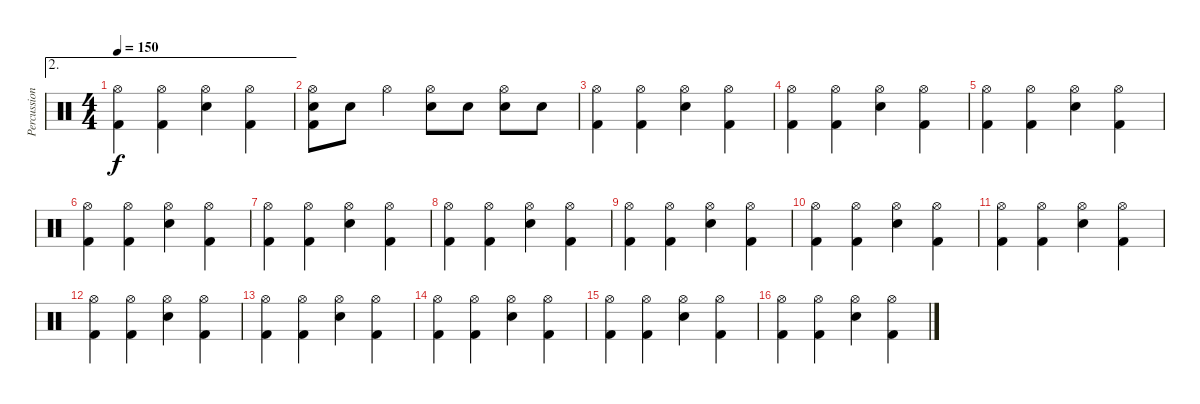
\track ("Percussions" "Percussion") {instrument percussion}
\staff {score}
\articulation defaults
\ae 2
\ts (4 4)
\tempo 150
\clef neutral
\ks c
("Hi-Hat (open)" "Kick (hit) 2").4{dy f} ("Hi-Hat (open)" "Kick (hit) 2").4 ("Hi-Hat (open)" "Electric Snare (hit)").4 ("Hi-Hat (open)" "Kick (hit) 2").4 |
("Hi-Hat (open)" "Snare (hit) 2" "Kick (hit) 2").8 "Snare (hit) 2".8 "Hi-Hat (open)".4 ("Hi-Hat (open)" "Snare (hit) 2").8 "Snare (hit) 2".8 ("Hi-Hat (open)" "Snare (hit) 2").8 "Snare (hit) 2".8 |
("Hi-Hat (open)" "Kick (hit) 2").4 ("Hi-Hat (open)" "Kick (hit) 2").4 ("Hi-Hat (open)" "Electric Snare (hit)").4 ("Hi-Hat (open)" "Kick (hit) 2").4 |
("Hi-Hat (open)" "Kick (hit) 2").4 ("Hi-Hat (open)" "Kick (hit) 2").4 ("Hi-Hat (open)" "Electric Snare (hit)").4 ("Hi-Hat (open)" "Kick (hit) 2").4 |
("Hi-Hat (open)" "Kick (hit) 2").4 ("Hi-Hat (open)" "Kick (hit) 2").4 ("Hi-Hat (open)" "Electric Snare (hit)").4 ("Hi-Hat (open)" "Kick (hit) 2").4 |
("Hi-Hat (open)" "Kick (hit) 2").4 ("Hi-Hat (open)" "Kick (hit) 2").4 ("Hi-Hat (open)" "Electric Snare (hit)").4 ("Hi-Hat (open)" "Kick (hit) 2").4 |
("Hi-Hat (open)" "Kick (hit) 2").4 ("Hi-Hat (open)" "Kick (hit) 2").4 ("Hi-Hat (open)" "Electric Snare (hit)").4 ("Hi-Hat (open)" "Kick (hit) 2").4 |
("Hi-Hat (open)" "Kick (hit) 2").4 ("Hi-Hat (open)" "Kick (hit) 2").4 ("Hi-Hat (open)" "Electric Snare (hit)").4 ("Hi-Hat (open)" "Kick (hit) 2").4 |
("Hi-Hat (open)" "Kick (hit) 2").4 ("Hi-Hat (open)" "Kick (hit) 2").4 ("Hi-Hat (open)" "Electric Snare (hit)").4 ("Hi-Hat (open)" "Kick (hit) 2").4 |
("Hi-Hat (open)" "Kick (hit) 2").4 ("Hi-Hat (open)" "Kick (hit) 2").4 ("Hi-Hat (open)" "Electric Snare (hit)").4 ("Hi-Hat (open)" "Kick (hit) 2").4 |
("Hi-Hat (open)" "Kick (hit) 2").4 ("Hi-Hat (open)" "Kick (hit) 2").4 ("Hi-Hat (open)" "Electric Snare (hit)").4 ("Hi-Hat (open)" "Kick (hit) 2").4 |
("Hi-Hat (open)" "Kick (hit) 2").4 ("Hi-Hat (open)" "Kick (hit) 2").4 ("Hi-Hat (open)" "Electric Snare (hit)").4 ("Hi-Hat (open)" "Kick (hit) 2").4 |
("Hi-Hat (open)" "Kick (hit) 2").4 ("Hi-Hat (open)" "Kick (hit) 2").4 ("Hi-Hat (open)" "Electric Snare (hit)").4 ("Hi-Hat (open)" "Kick (hit) 2").4 |
("Hi-Hat (open)" "Kick (hit) 2").4 ("Hi-Hat (open)" "Kick (hit) 2").4 ("Hi-Hat (open)" "Electric Snare (hit)").4 ("Hi-Hat (open)" "Kick (hit) 2").4 |
("Hi-Hat (open)" "Kick (hit) 2").4 ("Hi-Hat (open)" "Kick (hit) 2").4 ("Hi-Hat (open)" "Electric Snare (hit)").4 ("Hi-Hat (open)" "Kick (hit) 2").4 |
("Hi-Hat (open)" "Kick (hit) 2").4 ("Hi-Hat (open)" "Kick (hit) 2").4 ("Hi-Hat (open)" "Electric Snare (hit)").4 ("Hi-Hat (open)" "Kick (hit) 2").4
